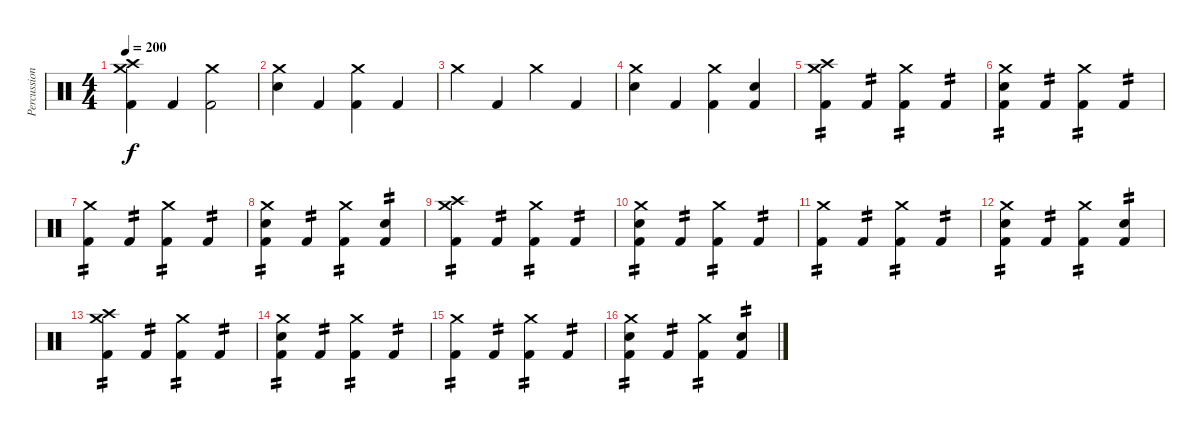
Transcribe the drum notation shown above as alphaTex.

\track ("Percussion" "Percussion") {instrument percussion}
\staff {score}
\articulation defaults
\ts (4 4)
\tempo 200
\clef neutral
\ks c
("Crash high (hit)" "Crash medium (hit)" "Kick (hit) 2").4{dy f} "Kick (hit) 2".4 ("Crash medium (hit)" "Kick (hit) 2").2 |
("Crash medium (hit)" "Electric Snare (hit)").4 "Kick (hit) 2".4 ("Crash medium (hit)" "Kick (hit) 2").4 "Kick (hit) 2".4 |
"Crash medium (hit)".4 "Kick (hit) 2".4 "Crash medium (hit)".4 "Kick (hit) 2".4 |
("Crash medium (hit)" "Electric Snare (hit)").4 "Kick (hit) 2".4 ("Crash medium (hit)" "Kick (hit) 2").4 ("Electric Snare (hit)" "Kick (hit) 2").4 |
("Crash high (hit)" "Crash medium (hit)" "Kick (hit) 2").4{tp 2} "Kick (hit) 2".4{tp 2} ("Crash medium (hit)" "Kick (hit) 2").4{tp 2} "Kick (hit) 2".4{tp 2} |
("Crash medium (hit)" "Electric Snare (hit)" "Kick (hit) 2").4{tp 2} "Kick (hit) 2".4{tp 2} ("Crash medium (hit)" "Kick (hit) 2").4{tp 2} "Kick (hit) 2".4{tp 2} |
("Crash medium (hit)" "Kick (hit) 2").4{tp 2} "Kick (hit) 2".4{tp 2} ("Crash medium (hit)" "Kick (hit) 2").4{tp 2} "Kick (hit) 2".4{tp 2} |
("Crash medium (hit)" "Electric Snare (hit)" "Kick (hit) 2").4{tp 2} "Kick (hit) 2".4{tp 2} ("Crash medium (hit)" "Kick (hit) 2").4{tp 2} ("Electric Snare (hit)" "Kick (hit) 2").4{tp 2} |
("Crash high (hit)" "Crash medium (hit)" "Kick (hit) 2").4{tp 2} "Kick (hit) 2".4{tp 2} ("Crash medium (hit)" "Kick (hit) 2").4{tp 2} "Kick (hit) 2".4{tp 2} |
("Crash medium (hit)" "Electric Snare (hit)" "Kick (hit) 2").4{tp 2} "Kick (hit) 2".4{tp 2} ("Crash medium (hit)" "Kick (hit) 2").4{tp 2} "Kick (hit) 2".4{tp 2} |
("Crash medium (hit)" "Kick (hit) 2").4{tp 2} "Kick (hit) 2".4{tp 2} ("Crash medium (hit)" "Kick (hit) 2").4{tp 2} "Kick (hit) 2".4{tp 2} |
("Crash medium (hit)" "Electric Snare (hit)" "Kick (hit) 2").4{tp 2} "Kick (hit) 2".4{tp 2} ("Crash medium (hit)" "Kick (hit) 2").4{tp 2} ("Electric Snare (hit)" "Kick (hit) 2").4{tp 2} |
("Crash high (hit)" "Crash medium (hit)" "Kick (hit) 2").4{tp 2} "Kick (hit) 2".4{tp 2} ("Crash medium (hit)" "Kick (hit) 2").4{tp 2} "Kick (hit) 2".4{tp 2} |
("Crash medium (hit)" "Electric Snare (hit)" "Kick (hit) 2").4{tp 2} "Kick (hit) 2".4{tp 2} ("Crash medium (hit)" "Kick (hit) 2").4{tp 2} "Kick (hit) 2".4{tp 2} |
("Crash medium (hit)" "Kick (hit) 2").4{tp 2} "Kick (hit) 2".4{tp 2} ("Crash medium (hit)" "Kick (hit) 2").4{tp 2} "Kick (hit) 2".4{tp 2} |
("Crash medium (hit)" "Electric Snare (hit)" "Kick (hit) 2").4{tp 2} "Kick (hit) 2".4{tp 2} ("Crash medium (hit)" "Kick (hit) 2").4{tp 2} ("Electric Snare (hit)" "Kick (hit) 2").4{tp 2}
